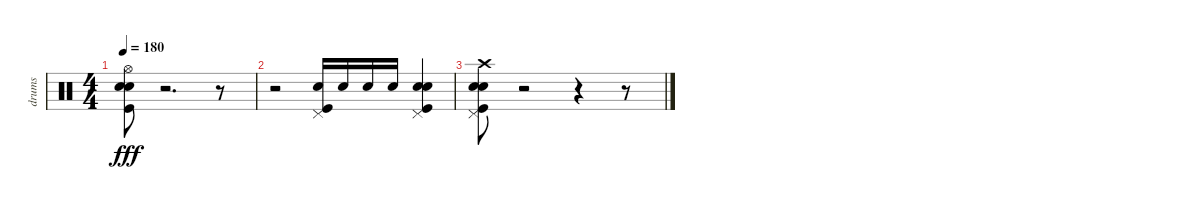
\track ("drums" "drums") {instrument percussion}
\staff {score}
\articulation defaults
\ts (4 4)
\tempo 180
\clef neutral
\ks c
("Hi-Hat (open)" "Electric Snare (hit)" "Snare (hit) 2" "Kick (hit)").8{dy fff} r.2{d} r.8 |
r.2 ("Snare (hit) 2" "Kick (hit)" "Pedal Hi-Hat (hit)").16 "Snare (hit) 2".16 "Snare (hit) 2".16 "Snare (hit) 2".16 ("Snare (hit) 2" "Electric Snare (hit)" "Pedal Hi-Hat (hit)" "Kick (hit)").4 |
("Pedal Hi-Hat (hit)" "Kick (hit)" "Snare (hit) 2" "Electric Snare (hit)" "Crash high (hit)").8 r.2 r.4 r.8
